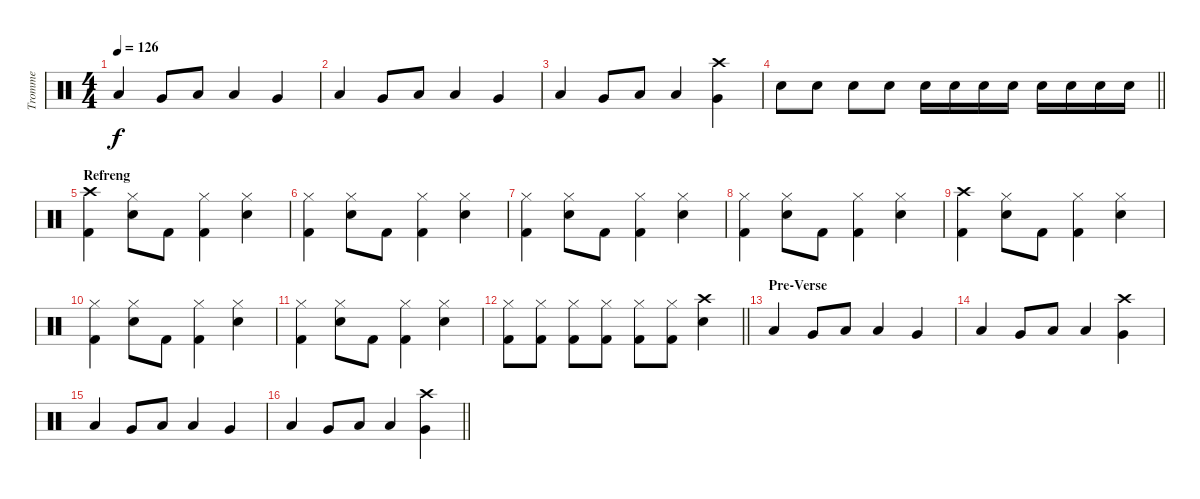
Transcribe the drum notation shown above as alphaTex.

\track ("Tromme" "Tromme") {instrument percussion}
\staff {score}
\articulation defaults
\ts (4 4)
\tempo 126
\clef neutral
\ks c "Low Floor Tom (hit)".4{dy f} "Very Low Tom (hit)".8 "Low Floor Tom (hit)".8 "Low Floor Tom (hit)".4 "Very Low Tom (hit)".4
|
"Low Floor Tom (hit)".4 "Very Low Tom (hit)".8 "Low Floor Tom (hit)".8 "Low Floor Tom (hit)".4 "Very Low Tom (hit)".4 |
"Low Floor Tom (hit)".4 "Very Low Tom (hit)".8 "Low Floor Tom (hit)".8 "Low Floor Tom (hit)".4 ("Crash high (hit)" "Very Low Tom (hit)").4 |
\barLineRight lightlight "Snare (hit) 2".8 "Snare (hit) 2".8 "Snare (hit) 2".8 "Snare (hit) 2".8 "Snare (hit) 2".16 "Snare (hit) 2".16 "Snare (hit) 2".16 "Snare (hit) 2".16 "Snare (hit) 2".16 "Snare (hit) 2".16 "Snare (hit) 2".16 "Snare (hit) 2".16
|
\section ("" "Refreng")
("Crash high (hit)" "Kick (hit) 2").4 ("Hi-Hat (closed)" "Snare (hit) 2").8 "Kick (hit) 2".8 ("Hi-Hat (closed)" "Kick (hit) 2").4 ("Hi-Hat (closed)" "Snare (hit) 2").4 |
("Hi-Hat (closed)" "Kick (hit) 2").4 ("Hi-Hat (closed)" "Snare (hit) 2").8 "Kick (hit) 2".8 ("Hi-Hat (closed)" "Kick (hit) 2").4 ("Hi-Hat (closed)" "Snare (hit) 2").4 |
("Hi-Hat (closed)" "Kick (hit) 2").4 ("Hi-Hat (closed)" "Snare (hit) 2").8 "Kick (hit) 2".8 ("Hi-Hat (closed)" "Kick (hit) 2").4 ("Hi-Hat (closed)" "Snare (hit) 2").4 |
("Hi-Hat (closed)" "Kick (hit) 2").4 ("Hi-Hat (closed)" "Snare (hit) 2").8 "Kick (hit) 2".8 ("Hi-Hat (closed)" "Kick (hit) 2").4 ("Hi-Hat (closed)" "Snare (hit) 2").4 |
("Crash high (hit)" "Kick (hit) 2").4 ("Hi-Hat (closed)" "Snare (hit) 2").8 "Kick (hit) 2".8 ("Hi-Hat (closed)" "Kick (hit) 2").4 ("Hi-Hat (closed)" "Snare (hit) 2").4 |
("Hi-Hat (closed)" "Kick (hit) 2").4 ("Hi-Hat (closed)" "Snare (hit) 2").8 "Kick (hit) 2".8 ("Hi-Hat (closed)" "Kick (hit) 2").4 ("Hi-Hat (closed)" "Snare (hit) 2").4 |
("Hi-Hat (closed)" "Kick (hit) 2").4 ("Hi-Hat (closed)" "Snare (hit) 2").8 "Kick (hit) 2".8 ("Hi-Hat (closed)" "Kick (hit) 2").4 ("Hi-Hat (closed)" "Snare (hit) 2").4 |
\barLineRight lightlight
("Hi-Hat (closed)" "Kick (hit) 2").8 ("Hi-Hat (closed)" "Kick (hit) 2").8 ("Hi-Hat (closed)" "Kick (hit) 2").8 ("Hi-Hat (closed)" "Kick (hit) 2").8 ("Hi-Hat (closed)" "Kick (hit) 2").8 ("Hi-Hat (closed)" "Kick (hit) 2").8 ("Crash high (hit)" "Snare (hit) 2").4 |
\section ("" "Pre-Verse")
"Low Floor Tom (hit)".4 "Very Low Tom (hit)".8 "Low Floor Tom (hit)".8 "Low Floor Tom (hit)".4 "Very Low Tom (hit)".4 |
"Low Floor Tom (hit)".4 "Very Low Tom (hit)".8 "Low Floor Tom (hit)".8 "Low Floor Tom (hit)".4 ("Crash high (hit)" "Very Low Tom (hit)").4 |
"Low Floor Tom (hit)".4 "Very Low Tom (hit)".8 "Low Floor Tom (hit)".8 "Low Floor Tom (hit)".4 "Very Low Tom (hit)".4 |
\barLineRight lightlight "Low Floor Tom (hit)".4 "Very Low Tom (hit)".8 "Low Floor Tom (hit)".8 "Low Floor Tom (hit)".4
("Crash high (hit)" "Very Low Tom (hit)").4
